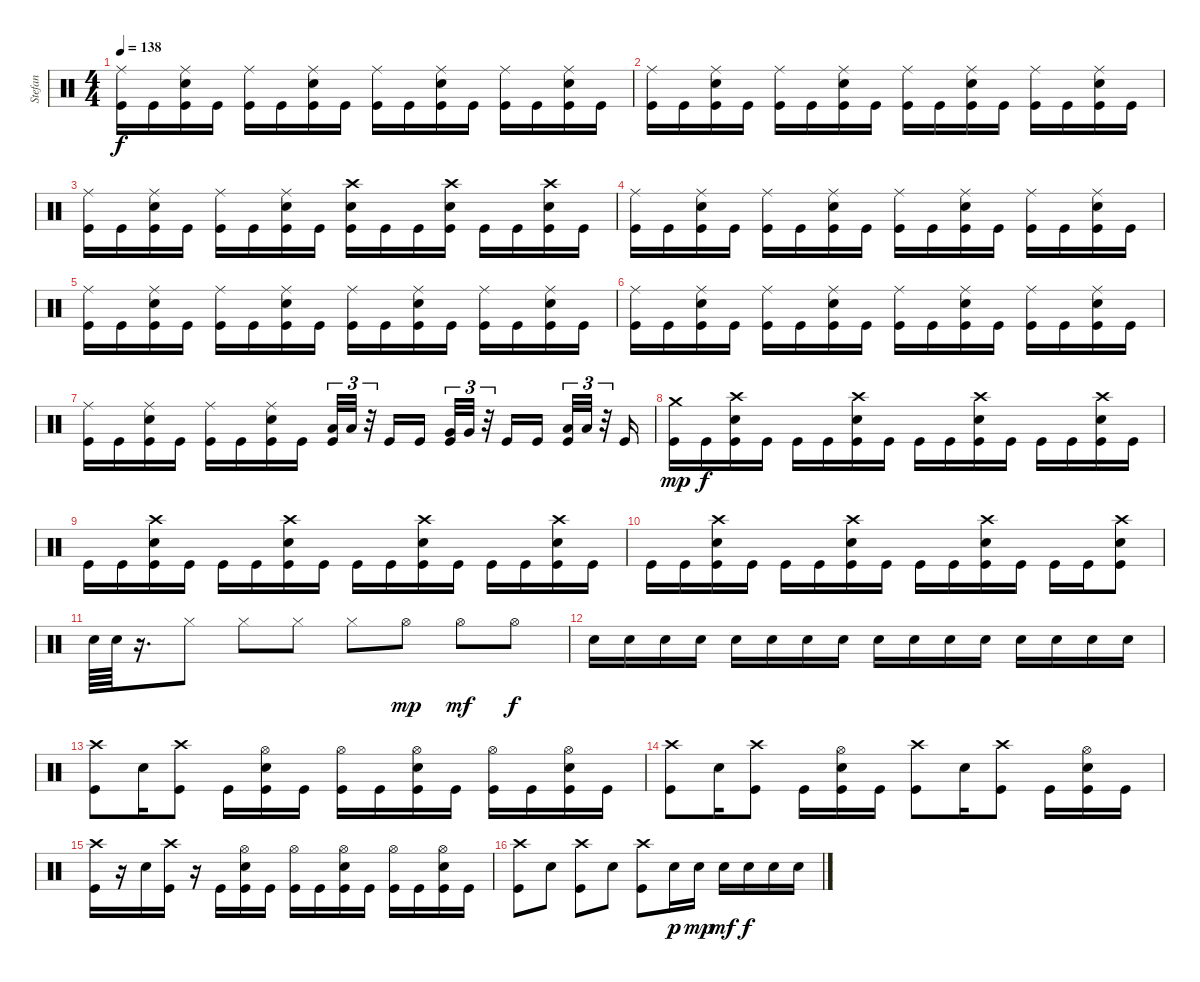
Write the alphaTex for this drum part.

\track ("Stefan" "Stefan") {instrument percussion}
\staff {score}
\articulation defaults
\ts (4 4)
\tempo 138
\clef neutral
\ks c
("Ride (middle)" "Kick (hit)").16{dy f} "Kick (hit)".16 ("Ride (middle)" "Snare (hit) 2" "Kick (hit)").16 "Kick (hit)".16 ("Ride (middle)" "Kick (hit)").16 "Kick (hit)".16 ("Ride (middle)" "Snare (hit) 2" "Kick (hit)").16 "Kick (hit)".16 ("Ride (middle)" "Kick (hit)").16 "Kick (hit)".16 ("Ride (middle)" "Snare (hit) 2" "Kick (hit)").16 "Kick (hit)".16 ("Ride (middle)" "Kick (hit)").16 "Kick (hit)".16 ("Ride (middle)" "Snare (hit) 2" "Kick (hit)").16 "Kick (hit)".16 |
("Ride (middle)" "Kick (hit)").16 "Kick (hit)".16 ("Ride (middle)" "Snare (hit) 2" "Kick (hit)").16 "Kick (hit)".16 ("Ride (middle)" "Kick (hit)").16 "Kick (hit)".16 ("Ride (middle)" "Snare (hit) 2" "Kick (hit)").16 "Kick (hit)".16 ("Ride (middle)" "Kick (hit)").16 "Kick (hit)".16 ("Ride (middle)" "Snare (hit) 2" "Kick (hit)").16 "Kick (hit)".16 ("Ride (middle)" "Kick (hit)").16 "Kick (hit)".16 ("Ride (middle)" "Snare (hit) 2" "Kick (hit)").16 "Kick (hit)".16 |
("Ride (middle)" "Kick (hit)").16 "Kick (hit)".16 ("Ride (middle)" "Snare (hit) 2" "Kick (hit)").16 "Kick (hit)".16 ("Ride (middle)" "Kick (hit)").16 "Kick (hit)".16 ("Ride (middle)" "Snare (hit) 2" "Kick (hit)").16 "Kick (hit)".16 ("Crash high (hit)" "Snare (hit) 2" "Kick (hit)").16 "Kick (hit)".16 "Kick (hit)".16 ("Crash high (hit)" "Snare (hit) 2" "Kick (hit)").16 "Kick (hit)".16 "Kick (hit)".16 ("Crash high (hit)" "Snare (hit) 2" "Kick (hit)").16 "Kick (hit)".16 |
("Ride (middle)" "Kick (hit)").16 "Kick (hit)".16 ("Ride (middle)" "Snare (hit) 2" "Kick (hit)").16 "Kick (hit)".16 ("Ride (middle)" "Kick (hit)").16 "Kick (hit)".16 ("Ride (middle)" "Snare (hit) 2" "Kick (hit)").16 "Kick (hit)".16 ("Ride (middle)" "Kick (hit)").16 "Kick (hit)".16 ("Ride (middle)" "Snare (hit) 2" "Kick (hit)").16 "Kick (hit)".16 ("Ride (middle)" "Kick (hit)").16 "Kick (hit)".16 ("Ride (middle)" "Snare (hit) 2" "Kick (hit)").16 "Kick (hit)".16 |
("Ride (middle)" "Kick (hit)").16 "Kick (hit)".16 ("Ride (middle)" "Snare (hit) 2" "Kick (hit)").16 "Kick (hit)".16 ("Ride (middle)" "Kick (hit)").16 "Kick (hit)".16 ("Ride (middle)" "Snare (hit) 2" "Kick (hit)").16 "Kick (hit)".16 ("Ride (middle)" "Kick (hit)").16 "Kick (hit)".16 ("Ride (middle)" "Snare (hit) 2" "Kick (hit)").16 "Kick (hit)".16 ("Ride (middle)" "Kick (hit)").16 "Kick (hit)".16 ("Ride (middle)" "Snare (hit) 2" "Kick (hit)").16 "Kick (hit)".16 |
("Ride (middle)" "Kick (hit)").16 "Kick (hit)".16 ("Ride (middle)" "Snare (hit) 2" "Kick (hit)").16 "Kick (hit)".16 ("Ride (middle)" "Kick (hit)").16 "Kick (hit)".16 ("Ride (middle)" "Snare (hit) 2" "Kick (hit)").16 "Kick (hit)".16 ("Ride (middle)" "Kick (hit)").16 "Kick (hit)".16 ("Ride (middle)" "Snare (hit) 2" "Kick (hit)").16 "Kick (hit)".16 ("Ride (middle)" "Kick (hit)").16 "Kick (hit)".16 ("Ride (middle)" "Snare (hit) 2" "Kick (hit)").16 "Kick (hit)".16 |
("Ride (middle)" "Kick (hit)").16 "Kick (hit)".16 ("Ride (middle)" "Snare (hit) 2" "Kick (hit)").16 "Kick (hit)".16 ("Ride (middle)" "Kick (hit)").16 "Kick (hit)".16 ("Ride (middle)" "Snare (hit) 2" "Kick (hit)").16 "Kick (hit)".16 ("Kick (hit)" "Low Tom (hit)").32{tu (3 2)} "Low Tom (hit)".32{tu (3 2)} r.32{tu (3 2)} "Kick (hit)".16 "Kick (hit)".16 ("Kick (hit)" "Very Low Tom (hit)").32{tu (3 2)} "Very Low Tom (hit)".32{tu (3 2)} r.32{tu (3 2)} "Kick (hit)".16 "Kick (hit)".16 ("Kick (hit)" "Low Floor Tom (hit)").32{tu (3 2)} "Low Floor Tom (hit)".32{tu (3 2)} r.32{tu (3 2)} "Kick (hit)".16 |
("Crash medium (hit)" "Kick (hit)").16{dy mp} "Kick (hit)".16{dy f} ("Crash high (hit)" "Snare (hit) 2" "Kick (hit)").16 "Kick (hit)".16 "Kick (hit)".16 "Kick (hit)".16 ("Crash high (hit)" "Snare (hit) 2" "Kick (hit)").16 "Kick (hit)".16 "Kick (hit)".16 "Kick (hit)".16 ("Crash high (hit)" "Snare (hit) 2" "Kick (hit)").16 "Kick (hit)".16 "Kick (hit)".16 "Kick (hit)".16 ("Crash high (hit)" "Snare (hit) 2" "Kick (hit)").16 "Kick (hit)".16 |
"Kick (hit)".16 "Kick (hit)".16 ("Crash high (hit)" "Snare (hit) 2" "Kick (hit)").16 "Kick (hit)".16 "Kick (hit)".16 "Kick (hit)".16 ("Crash high (hit)" "Snare (hit) 2" "Kick (hit)").16 "Kick (hit)".16 "Kick (hit)".16 "Kick (hit)".16 ("Crash high (hit)" "Snare (hit) 2" "Kick (hit)").16 "Kick (hit)".16 "Kick (hit)".16 "Kick (hit)".16 ("Crash high (hit)" "Snare (hit) 2" "Kick (hit)").16 "Kick (hit)".16 |
"Kick (hit)".16 "Kick (hit)".16 ("Crash high (hit)" "Snare (hit) 2" "Kick (hit)").16 "Kick (hit)".16 "Kick (hit)".16 "Kick (hit)".16 ("Crash high (hit)" "Snare (hit) 2" "Kick (hit)").16 "Kick (hit)".16 "Kick (hit)".16 "Kick (hit)".16 ("Crash high (hit)" "Snare (hit) 2" "Kick (hit)").16 "Kick (hit)".16 "Kick (hit)".16 "Kick (hit)".16 ("Crash high (hit)" "Snare (hit) 2" "Kick (hit)").8 |
"Snare (hit) 2".64 "Snare (hit) 2".64 r.16{d} "Hi-Hat (closed)".8 "Hi-Hat (closed)".8 "Hi-Hat (closed)".8 "Hi-Hat (closed)".8 "Hi-Hat (open)".8{dy mp} "Hi-Hat (open)".8{dy mf} "Hi-Hat (open)".8{dy f} |
"Snare (hit) 2".16 "Snare (hit) 2".16 "Snare (hit) 2".16 "Snare (hit) 2".16 "Snare (hit) 2".16 "Snare (hit) 2".16 "Snare (hit) 2".16 "Snare (hit) 2".16 "Snare (hit) 2".16 "Snare (hit) 2".16 "Snare (hit) 2".16 "Snare (hit) 2".16 "Snare (hit) 2".16 "Snare (hit) 2".16 "Snare (hit) 2".16 "Snare (hit) 2".16 |
("Kick (hit)" "Crash high (hit)").8 "Snare (hit) 2".16 ("Kick (hit)" "Crash high (hit)").8 "Kick (hit)".16 ("Hi-Hat (open)" "Snare (hit) 2" "Kick (hit)").16 "Kick (hit)".16 ("Hi-Hat (open)" "Kick (hit)").16 "Kick (hit)".16 ("Hi-Hat (open)" "Snare (hit) 2" "Kick (hit)").16 "Kick (hit)".16 ("Hi-Hat (open)" "Kick (hit)").16 "Kick (hit)".16 ("Hi-Hat (open)" "Snare (hit) 2" "Kick (hit)").16 "Kick (hit)".16 |
("Kick (hit)" "Crash high (hit)").8 "Snare (hit) 2".16 ("Kick (hit)" "Crash high (hit)").8 "Kick (hit)".16 ("Hi-Hat (open)" "Snare (hit) 2" "Kick (hit)").16 "Kick (hit)".16 ("Kick (hit)" "Crash high (hit)").8 "Snare (hit) 2".16 ("Kick (hit)" "Crash high (hit)").8 "Kick (hit)".16 ("Hi-Hat (open)" "Snare (hit) 2" "Kick (hit)").16 "Kick (hit)".16 |
("Kick (hit)" "Crash high (hit)").16 r.16 "Snare (hit) 2".16 ("Kick (hit)" "Crash high (hit)").16 r.16 "Kick (hit)".16 ("Hi-Hat (open)" "Snare (hit) 2" "Kick (hit)").16 "Kick (hit)".16 ("Hi-Hat (open)" "Kick (hit)").16 "Kick (hit)".16 ("Hi-Hat (open)" "Snare (hit) 2" "Kick (hit)").16 "Kick (hit)".16 ("Hi-Hat (open)" "Kick (hit)").16 "Kick (hit)".16 ("Hi-Hat (open)" "Snare (hit) 2" "Kick (hit)").16 "Kick (hit)".16 |
("Crash high (hit)" "Kick (hit)").8 "Snare (hit) 2".8 ("Crash high (hit)" "Kick (hit)").8 "Snare (hit) 2".8 ("Crash high (hit)" "Kick (hit)").8 "Snare (hit) 2".16{dy p} "Snare (hit) 2".16{dy mp} "Snare (hit) 2".16{dy mf} "Snare (hit) 2".16{dy f} "Snare (hit) 2".16 "Snare (hit) 2".16
